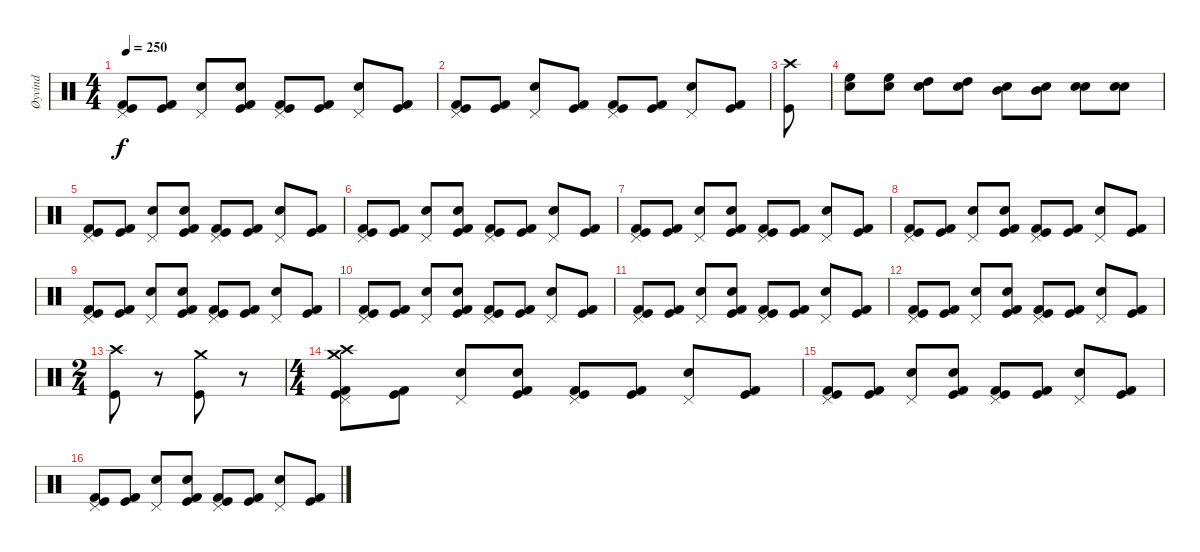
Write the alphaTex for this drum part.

\track ("Øyvind" "Øyvind") {instrument percussion}
\staff {score}
\articulation defaults
\ts (4 4)
\tempo 250
\clef neutral
\ks c
("Kick (hit) 2" "Pedal Hi-Hat (hit)" "Kick (hit)").8{dy f} ("Kick (hit) 2" "Kick (hit)").8 ("Snare (hit) 2" "Pedal Hi-Hat (hit)").8 ("Kick (hit) 2" "Snare (hit)" "Kick (hit)").8 ("Kick (hit) 2" "Pedal Hi-Hat (hit)" "Kick (hit)").8 ("Kick (hit) 2" "Kick (hit)").8 ("Snare (hit) 2" "Pedal Hi-Hat (hit)").8 ("Kick (hit) 2" "Kick (hit)").8 |
("Kick (hit) 2" "Pedal Hi-Hat (hit)" "Kick (hit)").8 ("Kick (hit) 2" "Kick (hit)").8 ("Snare (hit) 2" "Pedal Hi-Hat (hit)").8 ("Kick (hit) 2" "Kick (hit)").8 ("Kick (hit) 2" "Pedal Hi-Hat (hit)" "Kick (hit)").8 ("Kick (hit) 2" "Kick (hit)").8 ("Snare (hit) 2" "Pedal Hi-Hat (hit)").8 ("Kick (hit) 2" "Kick (hit)").8 |
("Crash high (hit)" "Kick (hit)").8 |
("High Floor Tom (hit)" "Snare (hit) 2").8 ("High Floor Tom (hit)" "Snare (hit) 2").8 ("High Tom (hit)" "Snare (hit) 2").8 ("High Tom (hit)" "Snare (hit) 2").8 ("Mid Tom (hit)" "Snare (hit) 2").8 ("Mid Tom (hit)" "Snare (hit) 2").8 ("Snare (hit) 2" "Snare (hit) 2").8 ("Snare (hit) 2" "Snare (hit) 2").8 |
("Kick (hit) 2" "Pedal Hi-Hat (hit)" "Kick (hit)").8 ("Kick (hit) 2" "Kick (hit)").8 ("Snare (hit) 2" "Pedal Hi-Hat (hit)").8 ("Kick (hit) 2" "Snare (hit)" "Kick (hit)").8 ("Kick (hit) 2" "Pedal Hi-Hat (hit)" "Kick (hit)").8 ("Kick (hit) 2" "Kick (hit)").8 ("Snare (hit) 2" "Pedal Hi-Hat (hit)").8 ("Kick (hit) 2" "Kick (hit)").8 |
("Kick (hit) 2" "Pedal Hi-Hat (hit)" "Kick (hit)").8 ("Kick (hit) 2" "Kick (hit)").8 ("Snare (hit) 2" "Pedal Hi-Hat (hit)").8 ("Kick (hit) 2" "Snare (hit)" "Kick (hit)").8 ("Kick (hit) 2" "Pedal Hi-Hat (hit)" "Kick (hit)").8 ("Kick (hit) 2" "Kick (hit)").8 ("Snare (hit) 2" "Pedal Hi-Hat (hit)").8 ("Kick (hit) 2" "Kick (hit)").8 |
("Kick (hit) 2" "Pedal Hi-Hat (hit)" "Kick (hit)").8 ("Kick (hit) 2" "Kick (hit)").8 ("Snare (hit) 2" "Pedal Hi-Hat (hit)").8 ("Kick (hit) 2" "Snare (hit)" "Kick (hit)").8 ("Kick (hit) 2" "Pedal Hi-Hat (hit)" "Kick (hit)").8 ("Kick (hit) 2" "Kick (hit)").8 ("Snare (hit) 2" "Pedal Hi-Hat (hit)").8 ("Kick (hit) 2" "Kick (hit)").8 |
("Kick (hit) 2" "Pedal Hi-Hat (hit)" "Kick (hit)").8 ("Kick (hit) 2" "Kick (hit)").8 ("Snare (hit) 2" "Pedal Hi-Hat (hit)").8 ("Kick (hit) 2" "Snare (hit)" "Kick (hit)").8 ("Kick (hit) 2" "Pedal Hi-Hat (hit)" "Kick (hit)").8 ("Kick (hit) 2" "Kick (hit)").8 ("Snare (hit) 2" "Pedal Hi-Hat (hit)").8 ("Kick (hit) 2" "Kick (hit)").8 |
("Kick (hit) 2" "Pedal Hi-Hat (hit)" "Kick (hit)").8 ("Kick (hit) 2" "Kick (hit)").8 ("Snare (hit) 2" "Pedal Hi-Hat (hit)").8 ("Kick (hit) 2" "Snare (hit)" "Kick (hit)").8 ("Kick (hit) 2" "Pedal Hi-Hat (hit)" "Kick (hit)").8 ("Kick (hit) 2" "Kick (hit)").8 ("Snare (hit) 2" "Pedal Hi-Hat (hit)").8 ("Kick (hit) 2" "Kick (hit)").8 |
("Kick (hit) 2" "Pedal Hi-Hat (hit)" "Kick (hit)").8 ("Kick (hit) 2" "Kick (hit)").8 ("Snare (hit) 2" "Pedal Hi-Hat (hit)").8 ("Kick (hit) 2" "Snare (hit)" "Kick (hit)").8 ("Kick (hit) 2" "Pedal Hi-Hat (hit)" "Kick (hit)").8 ("Kick (hit) 2" "Kick (hit)").8 ("Snare (hit) 2" "Pedal Hi-Hat (hit)").8 ("Kick (hit) 2" "Kick (hit)").8 |
("Kick (hit) 2" "Pedal Hi-Hat (hit)" "Kick (hit)").8 ("Kick (hit) 2" "Kick (hit)").8 ("Snare (hit) 2" "Pedal Hi-Hat (hit)").8 ("Kick (hit) 2" "Snare (hit)" "Kick (hit)").8 ("Kick (hit) 2" "Pedal Hi-Hat (hit)" "Kick (hit)").8 ("Kick (hit) 2" "Kick (hit)").8 ("Snare (hit) 2" "Pedal Hi-Hat (hit)").8 ("Kick (hit) 2" "Kick (hit)").8 |
("Kick (hit) 2" "Pedal Hi-Hat (hit)" "Kick (hit)").8 ("Kick (hit) 2" "Kick (hit)").8 ("Snare (hit) 2" "Pedal Hi-Hat (hit)").8 ("Kick (hit) 2" "Snare (hit)" "Kick (hit)").8 ("Kick (hit) 2" "Pedal Hi-Hat (hit)" "Kick (hit)").8 ("Kick (hit) 2" "Kick (hit)").8 ("Snare (hit) 2" "Pedal Hi-Hat (hit)").8 ("Kick (hit) 2" "Kick (hit)").8 |
\ts (2 4)
("Crash high (hit)" "Kick (hit)").8 r.8 ("Crash medium (hit)" "Kick (hit)").8 r.8 |
\ts (4 4)
("Kick (hit) 2" "Crash medium (hit)" "Crash high (hit)" "Pedal Hi-Hat (hit)" "Kick (hit)").8 ("Kick (hit) 2" "Kick (hit)").8 ("Snare (hit) 2" "Pedal Hi-Hat (hit)").8 ("Kick (hit) 2" "Snare (hit)" "Kick (hit)").8 ("Kick (hit) 2" "Pedal Hi-Hat (hit)" "Kick (hit)").8 ("Kick (hit) 2" "Kick (hit)").8 ("Snare (hit) 2" "Pedal Hi-Hat (hit)").8 ("Kick (hit) 2" "Kick (hit)").8 |
("Kick (hit) 2" "Pedal Hi-Hat (hit)" "Kick (hit)").8 ("Kick (hit) 2" "Kick (hit)").8 ("Snare (hit) 2" "Pedal Hi-Hat (hit)").8 ("Kick (hit) 2" "Snare (hit)" "Kick (hit)").8 ("Kick (hit) 2" "Pedal Hi-Hat (hit)" "Kick (hit)").8 ("Kick (hit) 2" "Kick (hit)").8 ("Snare (hit) 2" "Pedal Hi-Hat (hit)").8 ("Kick (hit) 2" "Kick (hit)").8 |
("Kick (hit) 2" "Pedal Hi-Hat (hit)" "Kick (hit)").8 ("Kick (hit) 2" "Kick (hit)").8 ("Snare (hit) 2" "Pedal Hi-Hat (hit)").8 ("Kick (hit) 2" "Snare (hit)" "Kick (hit)").8 ("Kick (hit) 2" "Pedal Hi-Hat (hit)" "Kick (hit)").8 ("Kick (hit) 2" "Kick (hit)").8 ("Snare (hit) 2" "Pedal Hi-Hat (hit)").8 ("Kick (hit) 2" "Kick (hit)").8
